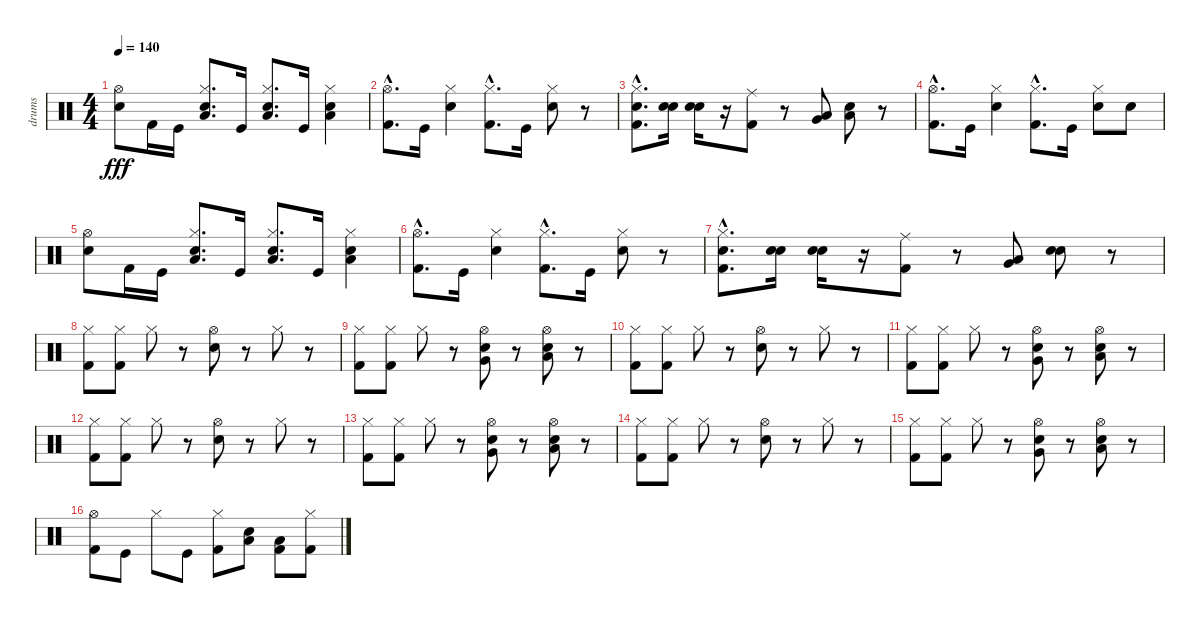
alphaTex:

\track ("drums" "drums") {instrument percussion}
\staff {score}
\articulation defaults
\ts (4 4)
\tempo 140
\clef neutral
\ks c
("Hi-Hat (open)" "Snare (hit) 2").8{dy fff} "Kick (hit) 2".16 "Kick (hit)".16 ("Hi-Hat (closed)" "Low Tom (hit)" "Snare (hit) 2").8{d} "Kick (hit)".16 ("Hi-Hat (closed)" "Low Tom (hit)" "Snare (hit) 2").8{d} "Kick (hit)".16 ("Hi-Hat (closed)" "Low Tom (hit)" "Snare (hit) 2").4 |
("Hi-Hat (open)"{hac} "Kick (hit) 2"{hac}).8{d} "Kick (hit)".16 ("Hi-Hat (closed)" "Snare (hit) 2").4 ("Hi-Hat (closed)"{hac} "Kick (hit) 2"{hac}).8{d} "Kick (hit)".16 ("Hi-Hat (closed)" "Snare (hit) 2").8 r.8 |
("Hi-Hat (closed)" "Snare (hit) 2"{hac} "Kick (hit) 2").8{d} ("Electric Snare (hit)" "Snare (hit) 2").16 ("Snare (hit) 2" "Electric Snare (hit)").16 r.16 ("Ride (middle)" "Kick (hit) 2").8 r.8 ("Very Low Tom (hit)" "Low Tom (hit)").8 ("Low Tom (hit)" "Snare (hit) 2").8 r.8 |
("Hi-Hat (open)"{hac} "Kick (hit) 2"{hac}).8{d} "Kick (hit)".16 ("Hi-Hat (closed)" "Snare (hit) 2").4 ("Hi-Hat (closed)"{hac} "Kick (hit) 2"{hac}).8{d} "Kick (hit)".16 ("Hi-Hat (closed)" "Snare (hit) 2").8 "Snare (hit) 2".8 |
("Hi-Hat (open)" "Snare (hit) 2").8 "Kick (hit) 2".16 "Kick (hit)".16 ("Hi-Hat (closed)" "Low Tom (hit)" "Snare (hit) 2").8{d} "Kick (hit)".16 ("Hi-Hat (closed)" "Low Tom (hit)" "Snare (hit) 2").8{d} "Kick (hit)".16 ("Hi-Hat (closed)" "Low Tom (hit)" "Snare (hit) 2").4 |
("Hi-Hat (open)"{hac} "Kick (hit) 2"{hac}).8{d} "Kick (hit)".16 ("Hi-Hat (closed)" "Snare (hit) 2").4 ("Hi-Hat (closed)"{hac} "Kick (hit) 2"{hac}).8{d} "Kick (hit)".16 ("Hi-Hat (closed)" "Snare (hit) 2").8 r.8 |
("Hi-Hat (closed)" "Snare (hit) 2"{hac} "Kick (hit) 2").8{d} ("Electric Snare (hit)" "Snare (hit) 2").16 ("Snare (hit) 2" "Electric Snare (hit)").16 r.16 ("Ride (middle)" "Kick (hit) 2").8 r.8 ("Very Low Tom (hit)" "Low Tom (hit)").8 ("Electric Snare (hit)" "Snare (hit) 2").8 r.8 |
("Hi-Hat (closed)" "Kick (hit) 2").8 ("Hi-Hat (closed)" "Kick (hit) 2").8 "Hi-Hat (closed)".8 r.8 ("Hi-Hat (open)" "Snare (hit) 2").8 r.8 "Hi-Hat (closed)".8 r.8 |
("Hi-Hat (closed)" "Kick (hit) 2").8 ("Hi-Hat (closed)" "Kick (hit) 2").8 "Hi-Hat (closed)".8 r.8 ("Very Low Tom (hit)" "Hi-Hat (open)" "Snare (hit) 2").8 r.8 ("Low Tom (hit)" "Snare (hit) 2" "Hi-Hat (open)").8 r.8 |
("Hi-Hat (closed)" "Kick (hit) 2").8 ("Hi-Hat (closed)" "Kick (hit) 2").8 "Hi-Hat (closed)".8 r.8 ("Hi-Hat (open)" "Snare (hit) 2").8 r.8 "Hi-Hat (closed)".8 r.8 |
("Hi-Hat (closed)" "Kick (hit) 2").8 ("Hi-Hat (closed)" "Kick (hit) 2").8 "Hi-Hat (closed)".8 r.8 ("Very Low Tom (hit)" "Hi-Hat (open)" "Snare (hit) 2").8 r.8 ("Low Tom (hit)" "Snare (hit) 2" "Hi-Hat (open)").8 r.8 |
("Hi-Hat (closed)" "Kick (hit) 2").8 ("Hi-Hat (closed)" "Kick (hit) 2").8 "Hi-Hat (closed)".8 r.8 ("Hi-Hat (open)" "Snare (hit) 2").8 r.8 "Hi-Hat (closed)".8 r.8 |
("Hi-Hat (closed)" "Kick (hit) 2").8 ("Hi-Hat (closed)" "Kick (hit) 2").8 "Hi-Hat (closed)".8 r.8 ("Very Low Tom (hit)" "Hi-Hat (open)" "Snare (hit) 2").8 r.8 ("Low Tom (hit)" "Snare (hit) 2" "Hi-Hat (open)").8 r.8 |
("Hi-Hat (closed)" "Kick (hit) 2").8 ("Hi-Hat (closed)" "Kick (hit) 2").8 "Hi-Hat (closed)".8 r.8 ("Hi-Hat (open)" "Snare (hit) 2").8 r.8 "Hi-Hat (closed)".8 r.8 |
("Hi-Hat (closed)" "Kick (hit) 2").8 ("Hi-Hat (closed)" "Kick (hit) 2").8 "Hi-Hat (closed)".8 r.8 ("Very Low Tom (hit)" "Hi-Hat (open)" "Snare (hit) 2").8 r.8 ("Low Tom (hit)" "Snare (hit) 2" "Hi-Hat (open)").8 r.8 |
("Hi-Hat (open)" "Kick (hit) 2").8 "Kick (hit)".8 "Hi-Hat (closed)".8 "Kick (hit)".8 ("Kick (hit) 2" "Hi-Hat (closed)").8 ("Snare (hit) 2" "Low Tom (hit)").8 ("Low Floor Tom (hit)" "Kick (hit) 2").8 ("Kick (hit) 2" "Hi-Hat (closed)").8
